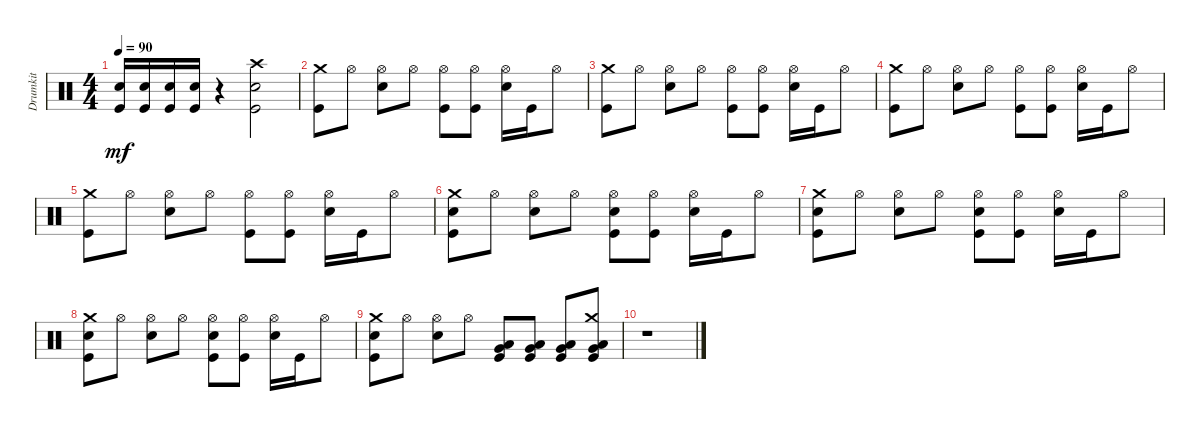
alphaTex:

\track ("Drumkit" "Drumkit") {instrument percussion}
\staff {score}
\articulation defaults
\ts (4 4)
\tempo 90
\clef neutral
\ks c
("Snare (hit) 2" "Kick (hit)").16{dy mf} ("Snare (hit) 2" "Kick (hit)").16 ("Snare (hit) 2" "Kick (hit)").16 ("Snare (hit) 2" "Kick (hit)").16 r.4 ("Snare (hit) 2" "Kick (hit)" "Crash high (hit)").2 |
("Crash medium (hit)" "Kick (hit)").8 "Hi-Hat (open)".8 ("Snare (hit) 2" "Hi-Hat (open)").8 "Hi-Hat (open)".8 ("Kick (hit)" "Hi-Hat (open)").8 ("Kick (hit)" "Hi-Hat (open)").8 ("Snare (hit) 2" "Hi-Hat (open)").16 "Kick (hit)".16 "Hi-Hat (open)".8 |
("Crash medium (hit)" "Kick (hit)").8 "Hi-Hat (open)".8 ("Snare (hit) 2" "Hi-Hat (open)").8 "Hi-Hat (open)".8 ("Kick (hit)" "Hi-Hat (open)").8 ("Kick (hit)" "Hi-Hat (open)").8 ("Snare (hit) 2" "Hi-Hat (open)").16 "Kick (hit)".16 "Hi-Hat (open)".8 |
("Crash medium (hit)" "Kick (hit)").8 "Hi-Hat (open)".8 ("Snare (hit) 2" "Hi-Hat (open)").8 "Hi-Hat (open)".8 ("Kick (hit)" "Hi-Hat (open)").8 ("Kick (hit)" "Hi-Hat (open)").8 ("Snare (hit) 2" "Hi-Hat (open)").16 "Kick (hit)".16 "Hi-Hat (open)".8 |
("Crash medium (hit)" "Kick (hit)").8 "Hi-Hat (open)".8 ("Snare (hit) 2" "Hi-Hat (open)").8 "Hi-Hat (open)".8 ("Kick (hit)" "Hi-Hat (open)").8 ("Kick (hit)" "Hi-Hat (open)").8 ("Snare (hit) 2" "Hi-Hat (open)").16 "Kick (hit)".16 "Hi-Hat (open)".8 |
("Crash medium (hit)" "Kick (hit)" "Snare (hit) 2").8 "Hi-Hat (open)".8 ("Snare (hit) 2" "Hi-Hat (open)").8 "Hi-Hat (open)".8 ("Kick (hit)" "Hi-Hat (open)" "Snare (hit) 2").8 ("Kick (hit)" "Hi-Hat (open)").8 ("Snare (hit) 2" "Hi-Hat (open)").16 "Kick (hit)".16 "Hi-Hat (open)".8 |
("Crash medium (hit)" "Kick (hit)" "Snare (hit) 2").8 "Hi-Hat (open)".8 ("Snare (hit) 2" "Hi-Hat (open)").8 "Hi-Hat (open)".8 ("Kick (hit)" "Hi-Hat (open)" "Snare (hit) 2").8 ("Kick (hit)" "Hi-Hat (open)").8 ("Snare (hit) 2" "Hi-Hat (open)").16 "Kick (hit)".16 "Hi-Hat (open)".8 |
("Crash medium (hit)" "Kick (hit)" "Snare (hit) 2").8 "Hi-Hat (open)".8 ("Snare (hit) 2" "Hi-Hat (open)").8 "Hi-Hat (open)".8 ("Kick (hit)" "Hi-Hat (open)" "Snare (hit) 2").8 ("Kick (hit)" "Hi-Hat (open)").8 ("Snare (hit) 2" "Hi-Hat (open)").16 "Kick (hit)".16 "Hi-Hat (open)".8 |
("Crash medium (hit)" "Kick (hit)" "Snare (hit) 2").8 "Hi-Hat (open)".8 ("Snare (hit) 2" "Hi-Hat (open)").8 "Hi-Hat (open)".8 ("Kick (hit)" "Very Low Tom (hit)" "Low Tom (hit)").8 ("Kick (hit)" "Very Low Tom (hit)" "Low Tom (hit)").8 ("Kick (hit)" "Very Low Tom (hit)" "Low Tom (hit)").8 ("Kick (hit)" "Very Low Tom (hit)" "Crash medium (hit)" "Low Tom (hit)").8 |
r.1
